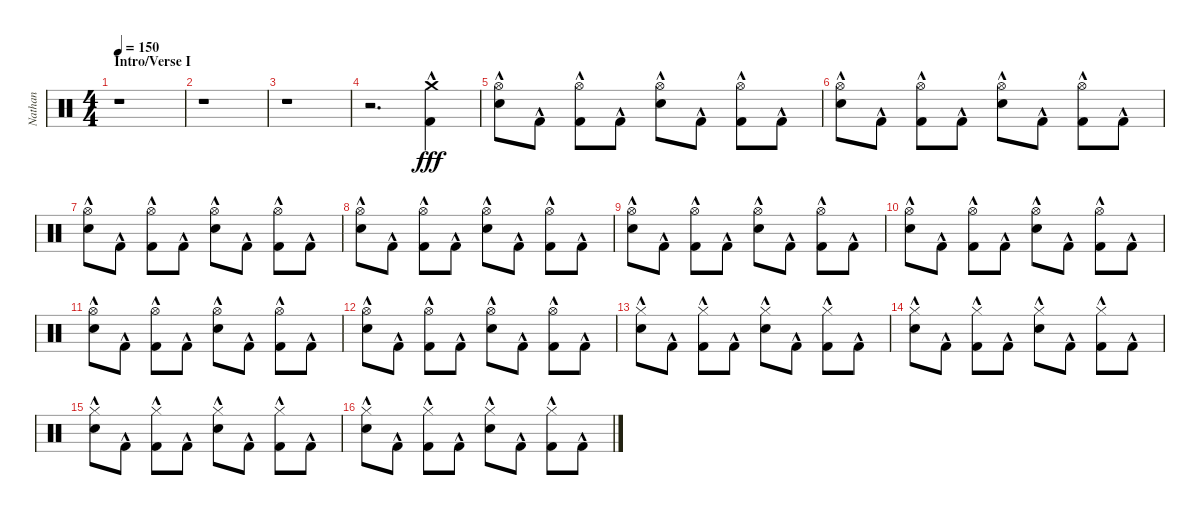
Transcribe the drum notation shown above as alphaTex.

\track ("Nathan" "Nathan") {instrument percussion}
\staff {score}
\articulation defaults
\ts (4 4)
\section ("" "Intro/Verse I")
\tempo 150
\clef neutral
\ks c
r.1{dy fff} |
r.1 |
r.1 |
r.2{d} ("Crash medium (hit)"{hac} "Kick (hit) 2"{hac}).4 |
("Hi-Hat (open)" "Snare (hit) 2"{hac}).8 "Kick (hit) 2"{hac}.8 ("Hi-Hat (open)" "Kick (hit) 2"{hac}).8 "Kick (hit) 2"{hac}.8 ("Hi-Hat (open)" "Snare (hit) 2"{hac}).8 "Kick (hit) 2"{hac}.8 ("Hi-Hat (open)" "Kick (hit) 2"{hac}).8 "Kick (hit) 2"{hac}.8 |
("Hi-Hat (open)" "Snare (hit) 2"{hac}).8 "Kick (hit) 2"{hac}.8 ("Hi-Hat (open)" "Kick (hit) 2"{hac}).8 "Kick (hit) 2"{hac}.8 ("Hi-Hat (open)" "Snare (hit) 2"{hac}).8 "Kick (hit) 2"{hac}.8 ("Hi-Hat (open)" "Kick (hit) 2"{hac}).8 "Kick (hit) 2"{hac}.8 |
("Hi-Hat (open)" "Snare (hit) 2"{hac}).8 "Kick (hit) 2"{hac}.8 ("Hi-Hat (open)" "Kick (hit) 2"{hac}).8 "Kick (hit) 2"{hac}.8 ("Hi-Hat (open)" "Snare (hit) 2"{hac}).8 "Kick (hit) 2"{hac}.8 ("Hi-Hat (open)" "Kick (hit) 2"{hac}).8 "Kick (hit) 2"{hac}.8 |
("Hi-Hat (open)" "Snare (hit) 2"{hac}).8 "Kick (hit) 2"{hac}.8 ("Hi-Hat (open)" "Kick (hit) 2"{hac}).8 "Kick (hit) 2"{hac}.8 ("Hi-Hat (open)" "Snare (hit) 2"{hac}).8 "Kick (hit) 2"{hac}.8 ("Hi-Hat (open)" "Kick (hit) 2"{hac}).8 "Kick (hit) 2"{hac}.8 |
("Hi-Hat (open)" "Snare (hit) 2"{hac}).8 "Kick (hit) 2"{hac}.8 ("Hi-Hat (open)" "Kick (hit) 2"{hac}).8 "Kick (hit) 2"{hac}.8 ("Hi-Hat (open)" "Snare (hit) 2"{hac}).8 "Kick (hit) 2"{hac}.8 ("Hi-Hat (open)" "Kick (hit) 2"{hac}).8 "Kick (hit) 2"{hac}.8 |
("Hi-Hat (open)" "Snare (hit) 2"{hac}).8 "Kick (hit) 2"{hac}.8 ("Hi-Hat (open)" "Kick (hit) 2"{hac}).8 "Kick (hit) 2"{hac}.8 ("Hi-Hat (open)" "Snare (hit) 2"{hac}).8 "Kick (hit) 2"{hac}.8 ("Hi-Hat (open)" "Kick (hit) 2"{hac}).8 "Kick (hit) 2"{hac}.8 |
("Hi-Hat (open)" "Snare (hit) 2"{hac}).8 "Kick (hit) 2"{hac}.8 ("Hi-Hat (open)" "Kick (hit) 2"{hac}).8 "Kick (hit) 2"{hac}.8 ("Hi-Hat (open)" "Snare (hit) 2"{hac}).8 "Kick (hit) 2"{hac}.8 ("Hi-Hat (open)" "Kick (hit) 2"{hac}).8 "Kick (hit) 2"{hac}.8 |
("Hi-Hat (open)" "Snare (hit) 2"{hac}).8 "Kick (hit) 2"{hac}.8 ("Hi-Hat (open)" "Kick (hit) 2"{hac}).8 "Kick (hit) 2"{hac}.8 ("Hi-Hat (open)" "Snare (hit) 2"{hac}).8 "Kick (hit) 2"{hac}.8 ("Hi-Hat (open)" "Kick (hit) 2"{hac}).8 "Kick (hit) 2"{hac}.8 |
("Hi-Hat (closed)" "Snare (hit) 2"{hac}).8 "Kick (hit) 2"{hac}.8 ("Hi-Hat (closed)" "Kick (hit) 2"{hac}).8 "Kick (hit) 2"{hac}.8 ("Hi-Hat (closed)" "Snare (hit) 2"{hac}).8 "Kick (hit) 2"{hac}.8 ("Hi-Hat (closed)" "Kick (hit) 2"{hac}).8 "Kick (hit) 2"{hac}.8 |
("Hi-Hat (closed)" "Snare (hit) 2"{hac}).8 "Kick (hit) 2"{hac}.8 ("Hi-Hat (closed)" "Kick (hit) 2"{hac}).8 "Kick (hit) 2"{hac}.8 ("Hi-Hat (closed)" "Snare (hit) 2"{hac}).8 "Kick (hit) 2"{hac}.8 ("Hi-Hat (closed)" "Kick (hit) 2"{hac}).8 "Kick (hit) 2"{hac}.8 |
("Hi-Hat (closed)" "Snare (hit) 2"{hac}).8 "Kick (hit) 2"{hac}.8 ("Hi-Hat (closed)" "Kick (hit) 2"{hac}).8 "Kick (hit) 2"{hac}.8 ("Hi-Hat (closed)" "Snare (hit) 2"{hac}).8 "Kick (hit) 2"{hac}.8 ("Hi-Hat (closed)" "Kick (hit) 2"{hac}).8 "Kick (hit) 2"{hac}.8 |
("Hi-Hat (closed)" "Snare (hit) 2"{hac}).8 "Kick (hit) 2"{hac}.8 ("Hi-Hat (closed)" "Kick (hit) 2"{hac}).8 "Kick (hit) 2"{hac}.8 ("Hi-Hat (closed)" "Snare (hit) 2"{hac}).8 "Kick (hit) 2"{hac}.8 ("Hi-Hat (closed)" "Kick (hit) 2"{hac}).8 "Kick (hit) 2"{hac}.8
